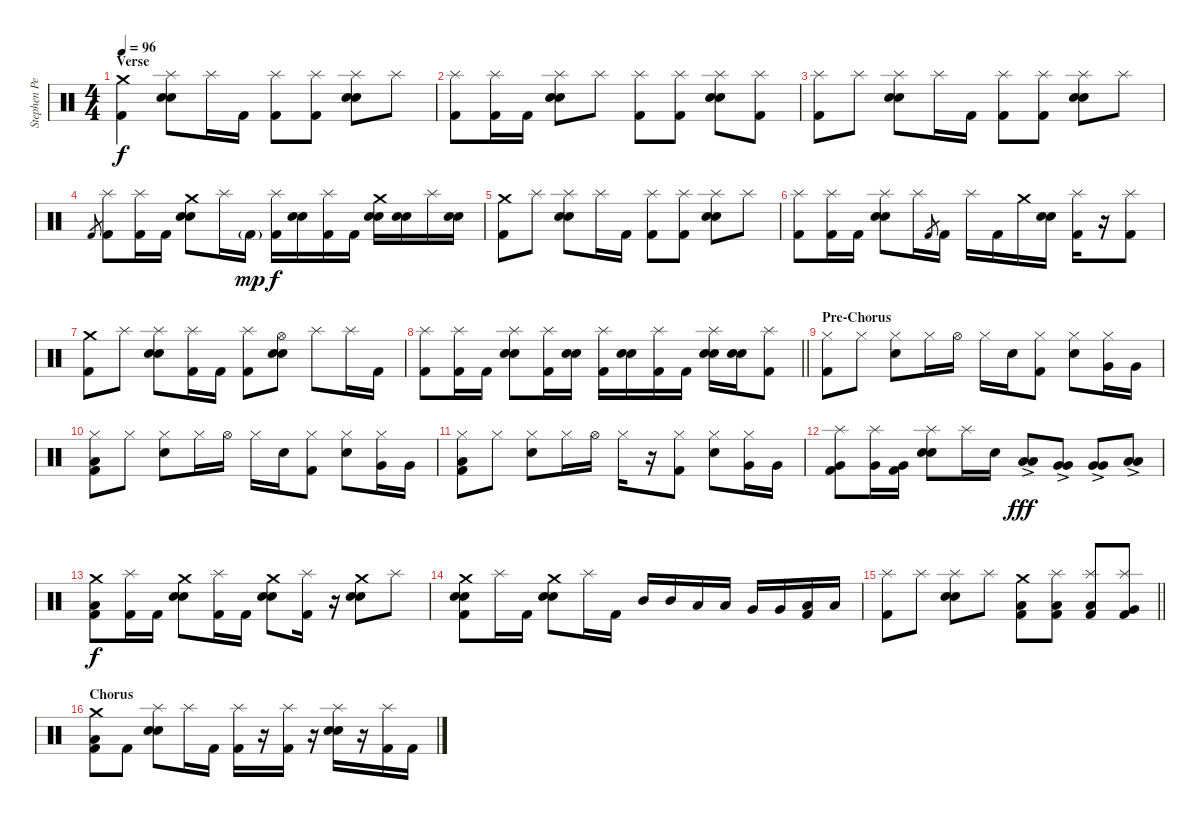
\track ("Stephen Perkins Drums" "Stephen Pe") {instrument percussion}
\staff {score}
\articulation defaults
\ts (4 4)
\section ("" "Verse")
\tempo 96
\clef neutral
\ks c
("Crash medium (hit)" "Kick (hit) 2").4{dy f} ("Splash (hit)" "Snare (hit) 2" "Electric Snare (hit)").8 "Splash (hit)".16 "Kick (hit) 2".16 ("Splash (hit)" "Kick (hit) 2").8 ("Splash (hit)" "Kick (hit) 2").8 ("Splash (hit)" "Snare (hit) 2" "Electric Snare (hit)").8 "Splash (hit)".8 |
("Splash (hit)" "Kick (hit) 2").8 ("Splash (hit)" "Kick (hit) 2").16 "Kick (hit) 2".16 ("Splash (hit)" "Snare (hit) 2" "Electric Snare (hit)").8 "Splash (hit)".8 ("Splash (hit)" "Kick (hit) 2").8 ("Splash (hit)" "Kick (hit) 2").8 ("Splash (hit)" "Snare (hit) 2" "Electric Snare (hit)").8 ("Splash (hit)" "Kick (hit) 2").8 |
("Splash (hit)" "Kick (hit) 2").8 "Splash (hit)".8 ("Splash (hit)" "Snare (hit) 2" "Electric Snare (hit)").8 "Splash (hit)".16 "Kick (hit) 2".16 ("Splash (hit)" "Kick (hit) 2").8 ("Splash (hit)" "Kick (hit) 2").8 ("Splash (hit)" "Snare (hit) 2" "Electric Snare (hit)").8 "Splash (hit)".8 |
"Kick (hit) 2".8{gr} ("Splash (hit)" "Kick (hit) 2").8 ("Splash (hit)" "Kick (hit) 2").16 "Kick (hit) 2".16 ("Crash medium (hit)" "Snare (hit) 2" "Electric Snare (hit)").8 "Splash (hit)".16 "Kick (hit) 2"{g}.16{dy mp} ("Splash (hit)" "Kick (hit) 2").16{dy f} ("Snare (hit) 2" "Electric Snare (hit)").16 ("Splash (hit)" "Kick (hit) 2").16 "Kick (hit) 2".16 ("Crash medium (hit)" "Snare (hit) 2" "Electric Snare (hit)").16 ("Snare (hit) 2" "Electric Snare (hit)").16 "Splash (hit)".16 ("Snare (hit) 2" "Electric Snare (hit)").16 |
("Crash medium (hit)" "Kick (hit) 2").8 "Splash (hit)".8 ("Splash (hit)" "Snare (hit) 2" "Electric Snare (hit)").8 "Splash (hit)".16 "Kick (hit) 2".16 ("Splash (hit)" "Kick (hit) 2").8 ("Splash (hit)" "Kick (hit) 2").8 ("Splash (hit)" "Snare (hit) 2" "Electric Snare (hit)").8 "Splash (hit)".8 |
("Splash (hit)" "Kick (hit) 2").8 ("Splash (hit)" "Kick (hit) 2").16 "Kick (hit) 2".16 ("Splash (hit)" "Snare (hit) 2" "Electric Snare (hit)").8 "Splash (hit)".16 "Kick (hit) 2".8{gr} "Kick (hit) 2".16 "Splash (hit)".16 "Kick (hit) 2".16 "Crash medium (hit)".16 ("Snare (hit) 2" "Electric Snare (hit)").16 ("Splash (hit)" "Kick (hit) 2").16 r.16 ("Splash (hit)" "Kick (hit) 2").8 |
("Crash medium (hit)" "Kick (hit) 2").8 "Splash (hit)".8 ("Splash (hit)" "Snare (hit) 2" "Electric Snare (hit)").8 ("Splash (hit)" "Kick (hit) 2").16 "Kick (hit) 2".16 ("Splash (hit)" "Kick (hit) 2").8 ("Hi-Hat (open)" "Snare (hit) 2" "Electric Snare (hit)").8 "Splash (hit)".8 "Splash (hit)".16 "Kick (hit) 2".16 |
\barLineRight lightlight
("Splash (hit)" "Kick (hit) 2").8 ("Splash (hit)" "Kick (hit) 2").16 "Kick (hit) 2".16 ("Splash (hit)" "Snare (hit) 2" "Electric Snare (hit)").8 ("Splash (hit)" "Kick (hit) 2").16 ("Snare (hit) 2" "Electric Snare (hit)").16 ("Splash (hit)" "Kick (hit) 2").16 ("Snare (hit) 2" "Electric Snare (hit)").16 ("Splash (hit)" "Kick (hit) 2").16 "Kick (hit) 2".16 ("Splash (hit)" "Snare (hit) 2" "Electric Snare (hit)").16 ("Snare (hit) 2" "Electric Snare (hit)").16 ("Splash (hit)" "Kick (hit) 2").8 |
\section ("" "Pre-Chorus")
("Hi-Hat (closed)" "Kick (hit) 2").8 "Hi-Hat (closed)".8 ("Hi-Hat (closed)" "Electric Snare (hit)").8 "Hi-Hat (closed)".16 "Hi-Hat (open)".16 "Hi-Hat (closed)".16 "Electric Snare (hit)".16 ("Hi-Hat (closed)" "Kick (hit) 2").8 ("Hi-Hat (closed)" "Electric Snare (hit)").8 ("Hi-Hat (closed)" "Very Low Tom (hit)").16 "Very Low Tom (hit)".16 |
("Hi-Hat (closed)" "Low Floor Tom (hit)" "Kick (hit) 2").8 "Hi-Hat (closed)".8 ("Hi-Hat (closed)" "Electric Snare (hit)").8 "Hi-Hat (closed)".16 "Hi-Hat (open)".16 "Hi-Hat (closed)".16 "Electric Snare (hit)".16 ("Hi-Hat (closed)" "Kick (hit) 2").8 ("Hi-Hat (closed)" "Electric Snare (hit)").8 ("Hi-Hat (closed)" "Very Low Tom (hit)").16 "Very Low Tom (hit)".16 |
("Hi-Hat (closed)" "Low Floor Tom (hit)" "Kick (hit) 2").8 "Hi-Hat (closed)".8 ("Hi-Hat (closed)" "Electric Snare (hit)").8 "Hi-Hat (closed)".16 "Hi-Hat (open)".16 "Hi-Hat (closed)".16 r.16 ("Hi-Hat (closed)" "Kick (hit) 2").8 ("Hi-Hat (closed)" "Electric Snare (hit)").8 ("Hi-Hat (closed)" "Very Low Tom (hit)").16 "Very Low Tom (hit)".16 |
("Splash (hit)" "Very Low Tom (hit)" "Kick (hit) 2").8 ("Splash (hit)" "Very Low Tom (hit)").16 ("Very Low Tom (hit)" "Kick (hit) 2").16 ("Splash (hit)" "Snare (hit) 2" "Electric Snare (hit)").8 "Splash (hit)".16 "Electric Snare (hit)".16 ("Low Tom (hit)"{ac} "Low Tom (hit)"{ac}).8{dy fff} ("Very Low Tom (hit)"{ac} "Very Low Tom (hit)"{ac}).8 ("Very Low Tom (hit)"{ac} "Very Low Tom (hit)"{ac}).8 ("Low Floor Tom (hit)"{ac} "Low Floor Tom (hit)"{ac}).8 |
("Crash medium (hit)" "Low Floor Tom (hit)" "Kick (hit) 2").8{dy f} ("Splash (hit)" "Kick (hit) 2").16 "Kick (hit) 2".16 ("Crash medium (hit)" "Snare (hit) 2" "Electric Snare (hit)").8 ("Splash (hit)" "Kick (hit) 2").16 "Kick (hit) 2".16 ("Crash medium (hit)" "Snare (hit) 2" "Electric Snare (hit)").8 ("Splash (hit)" "Kick (hit) 2").16 r.16 ("Crash medium (hit)" "Snare (hit) 2" "Electric Snare (hit)").8 "Splash (hit)".8 |
("Crash medium (hit)" "Snare (hit) 2" "Electric Snare (hit)" "Kick (hit) 2").8 "Splash (hit)".16 "Kick (hit) 2".16 ("Crash medium (hit)" "Snare (hit) 2" "Electric Snare (hit)").8 "Splash (hit)".16 "Kick (hit) 2".16 "Mid Tom (hit)".16 "Mid Tom (hit)".16 "Low Tom (hit)".16 "Low Tom (hit)".16 "Very Low Tom (hit)".16 "Very Low Tom (hit)".16 ("Low Floor Tom (hit)" "Kick (hit) 2").16 "Low Floor Tom (hit)".16 |
\barLineRight lightlight
("Splash (hit)" "Kick (hit) 2").8 "Splash (hit)".8 ("Splash (hit)" "Snare (hit) 2" "Electric Snare (hit)").8 "Splash (hit)".8 ("Crash medium (hit)" "Low Floor Tom (hit)" "Kick (hit) 2").8 ("Splash (hit)" "Low Floor Tom (hit)" "Kick (hit) 2").8 ("Splash (hit)" "Low Floor Tom (hit)" "Kick (hit) 2").8 ("Splash (hit)" "Very Low Tom (hit)" "Kick (hit) 2").8 |
\section ("" "Chorus")
("Crash medium (hit)" "Low Floor Tom (hit)" "Kick (hit) 2").8 "Kick (hit) 2".8 ("Splash (hit)" "Electric Snare (hit)" "Snare (hit) 2").8 "Splash (hit)".16 "Kick (hit) 2".16 ("Splash (hit)" "Kick (hit) 2").16 r.16 ("Splash (hit)" "Kick (hit) 2").16 r.16 ("Splash (hit)" "Snare (hit) 2" "Electric Snare (hit)").16 r.16 ("Splash (hit)" "Kick (hit) 2").16 "Kick (hit) 2".16
